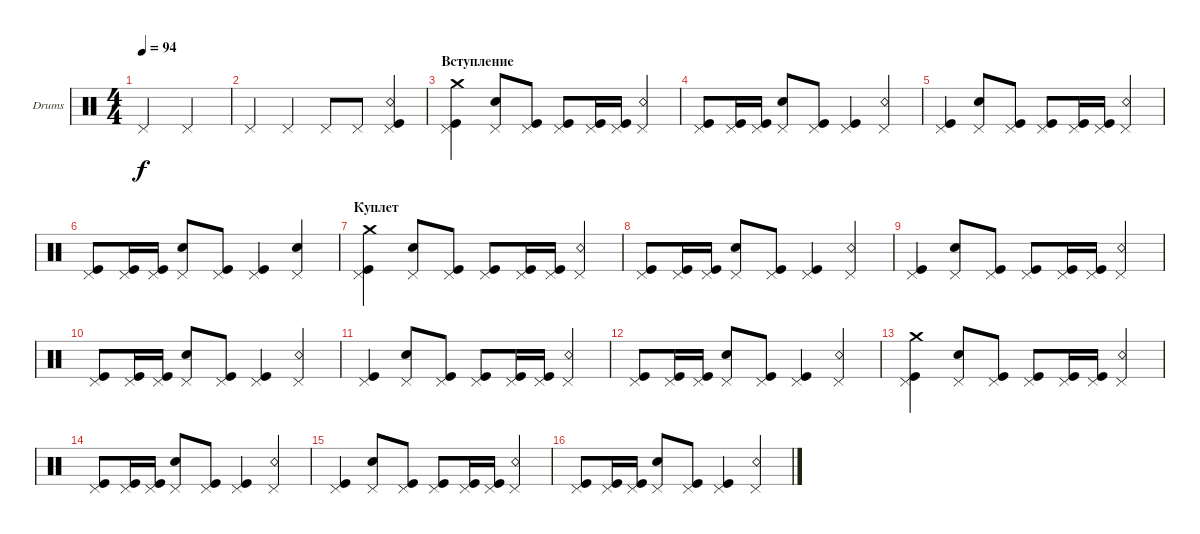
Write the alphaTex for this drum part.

\defaultSystemsLayout 4
\bracketExtendMode groupsimilarinstruments
\firstSystemTrackNameOrientation horizontal
\otherSystemsTrackNameOrientation horizontal
\track ("Е. Кулаков" "Drums") {instrument percussion}
\staff {score}
\articulation defaults
\ts (4 4)
\tempo 94
\clef neutral
\ks c "Pedal Hi-Hat (hit)".2{dy f} "Pedal Hi-Hat (hit)".2
|
"Pedal Hi-Hat (hit)".4 "Pedal Hi-Hat (hit)".4 "Pedal Hi-Hat (hit)".8 "Pedal Hi-Hat (hit)".8 ("Pedal Hi-Hat (hit)" "Kick (hit)" "Snare (rim shot)").4 |
\section ("" "Вступление")
("Kick (hit)" "Pedal Hi-Hat (hit)" "Crash medium (hit)").4 ("Snare (hit) 2" "Pedal Hi-Hat (hit)").8 ("Kick (hit)" "Pedal Hi-Hat (hit)").8 ("Kick (hit)" "Pedal Hi-Hat (hit)").8 ("Kick (hit)" "Pedal Hi-Hat (hit)").16 ("Kick (hit)" "Pedal Hi-Hat (hit)").16 ("Snare (rim shot)" "Pedal Hi-Hat (hit)").4 |
("Kick (hit)" "Pedal Hi-Hat (hit)").8 ("Pedal Hi-Hat (hit)" "Kick (hit)").16 ("Pedal Hi-Hat (hit)" "Kick (hit)").16 ("Snare (hit) 2" "Pedal Hi-Hat (hit)").8 ("Kick (hit)" "Pedal Hi-Hat (hit)").8 ("Kick (hit)" "Pedal Hi-Hat (hit)").4 ("Snare (rim shot)" "Pedal Hi-Hat (hit)").4 |
("Kick (hit)" "Pedal Hi-Hat (hit)").4 ("Snare (hit) 2" "Pedal Hi-Hat (hit)").8 ("Kick (hit)" "Pedal Hi-Hat (hit)").8 ("Kick (hit)" "Pedal Hi-Hat (hit)").8 ("Kick (hit)" "Pedal Hi-Hat (hit)").16 ("Kick (hit)" "Pedal Hi-Hat (hit)").16 ("Snare (rim shot)" "Pedal Hi-Hat (hit)").4 |
("Kick (hit)" "Pedal Hi-Hat (hit)").8 ("Pedal Hi-Hat (hit)" "Kick (hit)").16 ("Pedal Hi-Hat (hit)" "Kick (hit)").16 ("Snare (hit) 2" "Pedal Hi-Hat (hit)").8 ("Kick (hit)" "Pedal Hi-Hat (hit)").8 ("Kick (hit)" "Pedal Hi-Hat (hit)").4 ("Pedal Hi-Hat (hit)" "Snare (hit) 2").4 |
\section ("" "Куплет")
("Kick (hit)" "Pedal Hi-Hat (hit)" "Crash medium (hit)").4 ("Snare (hit) 2" "Pedal Hi-Hat (hit)").8 ("Kick (hit)" "Pedal Hi-Hat (hit)").8 ("Kick (hit)" "Pedal Hi-Hat (hit)").8 ("Kick (hit)" "Pedal Hi-Hat (hit)").16 ("Kick (hit)" "Pedal Hi-Hat (hit)").16 ("Snare (rim shot)" "Pedal Hi-Hat (hit)").4 |
("Kick (hit)" "Pedal Hi-Hat (hit)").8 ("Pedal Hi-Hat (hit)" "Kick (hit)").16 ("Pedal Hi-Hat (hit)" "Kick (hit)").16 ("Snare (hit) 2" "Pedal Hi-Hat (hit)").8 ("Kick (hit)" "Pedal Hi-Hat (hit)").8 ("Kick (hit)" "Pedal Hi-Hat (hit)").4 ("Snare (rim shot)" "Pedal Hi-Hat (hit)").4 |
("Kick (hit)" "Pedal Hi-Hat (hit)").4 ("Snare (hit) 2" "Pedal Hi-Hat (hit)").8 ("Kick (hit)" "Pedal Hi-Hat (hit)").8 ("Kick (hit)" "Pedal Hi-Hat (hit)").8 ("Kick (hit)" "Pedal Hi-Hat (hit)").16 ("Kick (hit)" "Pedal Hi-Hat (hit)").16 ("Snare (rim shot)" "Pedal Hi-Hat (hit)").4 |
("Kick (hit)" "Pedal Hi-Hat (hit)").8 ("Pedal Hi-Hat (hit)" "Kick (hit)").16 ("Pedal Hi-Hat (hit)" "Kick (hit)").16 ("Snare (hit) 2" "Pedal Hi-Hat (hit)").8 ("Kick (hit)" "Pedal Hi-Hat (hit)").8 ("Kick (hit)" "Pedal Hi-Hat (hit)").4 ("Snare (rim shot)" "Pedal Hi-Hat (hit)").4 |
("Kick (hit)" "Pedal Hi-Hat (hit)").4 ("Snare (hit) 2" "Pedal Hi-Hat (hit)").8 ("Kick (hit)" "Pedal Hi-Hat (hit)").8 ("Kick (hit)" "Pedal Hi-Hat (hit)").8 ("Kick (hit)" "Pedal Hi-Hat (hit)").16 ("Kick (hit)" "Pedal Hi-Hat (hit)").16 ("Snare (rim shot)" "Pedal Hi-Hat (hit)").4 |
("Kick (hit)" "Pedal Hi-Hat (hit)").8 ("Pedal Hi-Hat (hit)" "Kick (hit)").16 ("Pedal Hi-Hat (hit)" "Kick (hit)").16 ("Snare (hit) 2" "Pedal Hi-Hat (hit)").8 ("Kick (hit)" "Pedal Hi-Hat (hit)").8 ("Kick (hit)" "Pedal Hi-Hat (hit)").4 ("Snare (rim shot)" "Pedal Hi-Hat (hit)").4 |
("Kick (hit)" "Pedal Hi-Hat (hit)" "Crash medium (hit)").4 ("Snare (hit) 2" "Pedal Hi-Hat (hit)").8 ("Kick (hit)" "Pedal Hi-Hat (hit)").8 ("Kick (hit)" "Pedal Hi-Hat (hit)").8 ("Kick (hit)" "Pedal Hi-Hat (hit)").16 ("Kick (hit)" "Pedal Hi-Hat (hit)").16 ("Snare (rim shot)" "Pedal Hi-Hat (hit)").4 |
("Kick (hit)" "Pedal Hi-Hat (hit)").8 ("Pedal Hi-Hat (hit)" "Kick (hit)").16 ("Pedal Hi-Hat (hit)" "Kick (hit)").16 ("Snare (hit) 2" "Pedal Hi-Hat (hit)").8 ("Kick (hit)" "Pedal Hi-Hat (hit)").8 ("Kick (hit)" "Pedal Hi-Hat (hit)").4 ("Snare (rim shot)" "Pedal Hi-Hat (hit)").4 |
("Kick (hit)" "Pedal Hi-Hat (hit)").4 ("Snare (hit) 2" "Pedal Hi-Hat (hit)").8 ("Kick (hit)" "Pedal Hi-Hat (hit)").8 ("Kick (hit)" "Pedal Hi-Hat (hit)").8 ("Kick (hit)" "Pedal Hi-Hat (hit)").16 ("Kick (hit)" "Pedal Hi-Hat (hit)").16 ("Snare (rim shot)" "Pedal Hi-Hat (hit)").4 |
("Kick (hit)" "Pedal Hi-Hat (hit)").8 ("Pedal Hi-Hat (hit)" "Kick (hit)").16 ("Pedal Hi-Hat (hit)" "Kick (hit)").16 ("Snare (hit) 2" "Pedal Hi-Hat (hit)").8 ("Kick (hit)" "Pedal Hi-Hat (hit)").8 ("Kick (hit)" "Pedal Hi-Hat (hit)").4 ("Snare (rim shot)" "Pedal Hi-Hat (hit)").4
